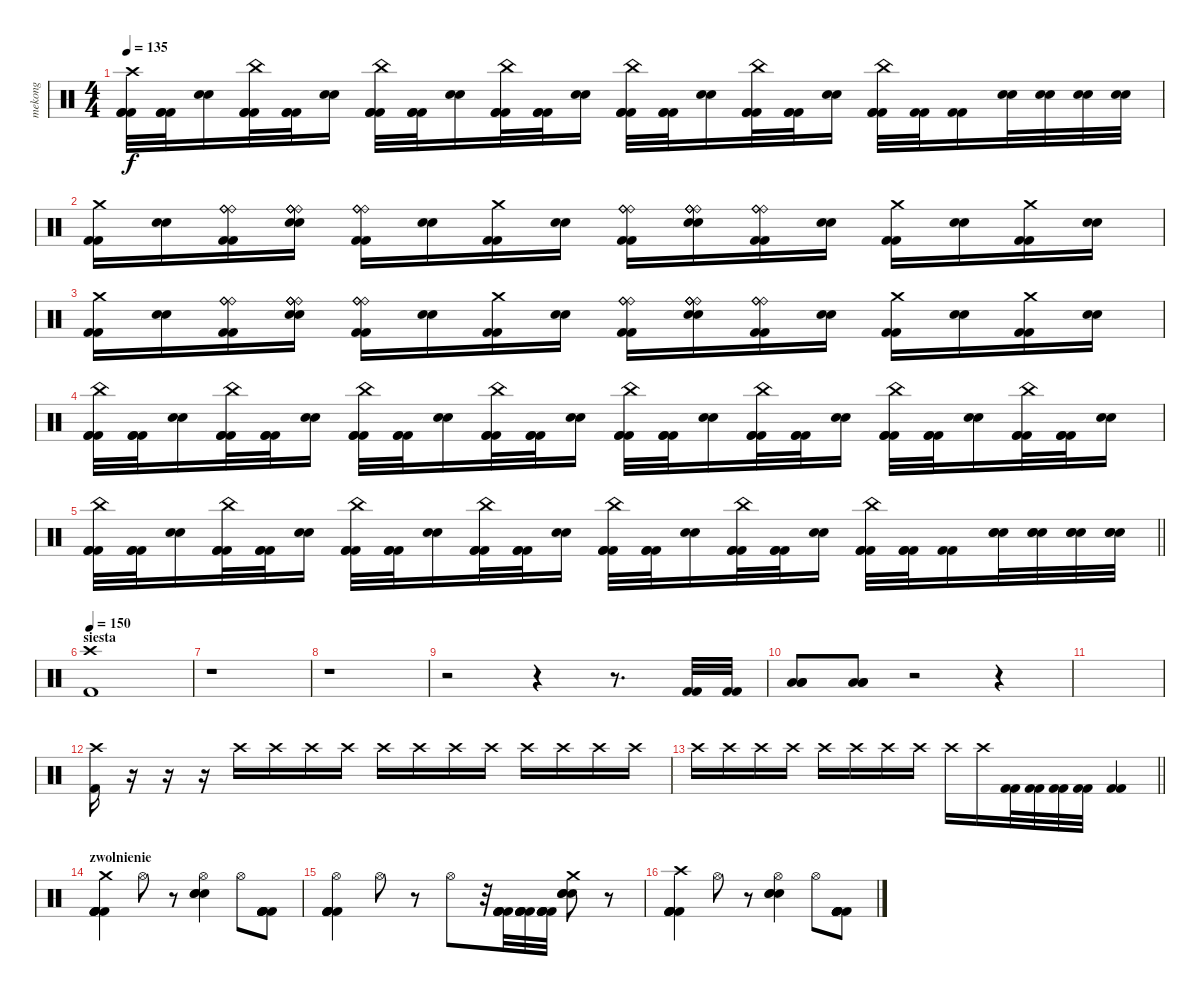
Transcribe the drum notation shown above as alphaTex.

\track ("mekong" "mekong") {instrument percussion}
\staff {score}
\articulation defaults
\ts (4 4)
\tempo 135
\clef neutral
\ks c
("Crash high (hit)" "Kick (hit) 2" "Kick (hit) 2" "Kick (hit) 2").32{dy f} ("Kick (hit) 2" "Kick (hit) 2" "Kick (hit) 2").32 ("Electric Snare (hit)" "Electric Snare (hit)").16 ("China (hit)" "Kick (hit) 2" "Kick (hit) 2" "Kick (hit) 2").32 ("Kick (hit) 2" "Kick (hit) 2" "Kick (hit) 2").32 ("Electric Snare (hit)" "Electric Snare (hit)").16 ("China (hit)" "Kick (hit) 2" "Kick (hit) 2" "Kick (hit) 2").32 ("Kick (hit) 2" "Kick (hit) 2" "Kick (hit) 2").32 ("Electric Snare (hit)" "Electric Snare (hit)").16 ("China (hit)" "Kick (hit) 2" "Kick (hit) 2" "Kick (hit) 2").32 ("Kick (hit) 2" "Kick (hit) 2" "Kick (hit) 2").32 ("Electric Snare (hit)" "Electric Snare (hit)").16 ("China (hit)" "Kick (hit) 2" "Kick (hit) 2" "Kick (hit) 2").32 ("Kick (hit) 2" "Kick (hit) 2" "Kick (hit) 2").32 ("Electric Snare (hit)" "Electric Snare (hit)").16 ("China (hit)" "Kick (hit) 2" "Kick (hit) 2" "Kick (hit) 2").32 ("Kick (hit) 2" "Kick (hit) 2" "Kick (hit) 2").32 ("Electric Snare (hit)" "Electric Snare (hit)").16 ("China (hit)" "Kick (hit) 2" "Kick (hit) 2" "Kick (hit) 2").32 ("Kick (hit) 2" "Kick (hit) 2").32 ("Kick (hit) 2" "Kick (hit) 2").16 ("Electric Snare (hit)" "Electric Snare (hit)").32 ("Electric Snare (hit)" "Electric Snare (hit)").32 ("Electric Snare (hit)" "Electric Snare (hit)").32 ("Electric Snare (hit)" "Electric Snare (hit)").32 |
("Crash medium (hit)" "Kick (hit) 2" "Kick (hit) 2").16 ("Electric Snare (hit)" "Electric Snare (hit)").16 ("Ride (bell)" "Ride (bell)" "Ride (bell)" "Ride (bell)" "Kick (hit) 2" "Kick (hit) 2").16 ("Ride (bell)" "Ride (bell)" "Ride (bell)" "Ride (bell)" "Electric Snare (hit)" "Electric Snare (hit)").16 ("Ride (bell)" "Ride (bell)" "Ride (bell)" "Ride (bell)" "Kick (hit) 2" "Kick (hit) 2").16 ("Electric Snare (hit)" "Electric Snare (hit)").16 ("Crash medium (hit)" "Kick (hit) 2" "Kick (hit) 2").16 ("Electric Snare (hit)" "Electric Snare (hit)").16 ("Ride (bell)" "Ride (bell)" "Ride (bell)" "Ride (bell)" "Kick (hit) 2" "Kick (hit) 2").16 ("Ride (bell)" "Ride (bell)" "Ride (bell)" "Ride (bell)" "Electric Snare (hit)" "Electric Snare (hit)").16 ("Ride (bell)" "Ride (bell)" "Ride (bell)" "Ride (bell)" "Kick (hit) 2" "Kick (hit) 2").16 ("Electric Snare (hit)" "Electric Snare (hit)").16 ("Crash medium (hit)" "Kick (hit) 2" "Kick (hit) 2").16 ("Electric Snare (hit)" "Electric Snare (hit)").16 ("Crash medium (hit)" "Kick (hit) 2" "Kick (hit) 2").16 ("Electric Snare (hit)" "Electric Snare (hit)").16 |
("Crash medium (hit)" "Kick (hit) 2" "Kick (hit) 2").16 ("Electric Snare (hit)" "Electric Snare (hit)").16 ("Ride (bell)" "Ride (bell)" "Ride (bell)" "Ride (bell)" "Kick (hit) 2" "Kick (hit) 2").16 ("Ride (bell)" "Ride (bell)" "Ride (bell)" "Ride (bell)" "Electric Snare (hit)" "Electric Snare (hit)").16 ("Ride (bell)" "Ride (bell)" "Ride (bell)" "Ride (bell)" "Kick (hit) 2" "Kick (hit) 2").16 ("Electric Snare (hit)" "Electric Snare (hit)").16 ("Crash medium (hit)" "Kick (hit) 2" "Kick (hit) 2").16 ("Electric Snare (hit)" "Electric Snare (hit)").16 ("Ride (bell)" "Ride (bell)" "Ride (bell)" "Ride (bell)" "Kick (hit) 2" "Kick (hit) 2").16 ("Ride (bell)" "Ride (bell)" "Ride (bell)" "Ride (bell)" "Electric Snare (hit)" "Electric Snare (hit)").16 ("Ride (bell)" "Ride (bell)" "Ride (bell)" "Ride (bell)" "Kick (hit) 2" "Kick (hit) 2").16 ("Electric Snare (hit)" "Electric Snare (hit)").16 ("Crash medium (hit)" "Kick (hit) 2" "Kick (hit) 2").16 ("Electric Snare (hit)" "Electric Snare (hit)").16 ("Crash medium (hit)" "Kick (hit) 2" "Kick (hit) 2").16 ("Electric Snare (hit)" "Electric Snare (hit)").16 |
("China (hit)" "Kick (hit) 2" "Kick (hit) 2" "Kick (hit) 2").32 ("Kick (hit) 2" "Kick (hit) 2" "Kick (hit) 2").32 ("Electric Snare (hit)" "Electric Snare (hit)").16 ("China (hit)" "Kick (hit) 2" "Kick (hit) 2" "Kick (hit) 2").32 ("Kick (hit) 2" "Kick (hit) 2" "Kick (hit) 2").32 ("Electric Snare (hit)" "Electric Snare (hit)").16 ("China (hit)" "Kick (hit) 2" "Kick (hit) 2" "Kick (hit) 2").32 ("Kick (hit) 2" "Kick (hit) 2" "Kick (hit) 2").32 ("Electric Snare (hit)" "Electric Snare (hit)").16 ("China (hit)" "Kick (hit) 2" "Kick (hit) 2" "Kick (hit) 2").32 ("Kick (hit) 2" "Kick (hit) 2" "Kick (hit) 2").32 ("Electric Snare (hit)" "Electric Snare (hit)").16 ("China (hit)" "Kick (hit) 2" "Kick (hit) 2" "Kick (hit) 2").32 ("Kick (hit) 2" "Kick (hit) 2" "Kick (hit) 2").32 ("Electric Snare (hit)" "Electric Snare (hit)").16 ("China (hit)" "Kick (hit) 2" "Kick (hit) 2" "Kick (hit) 2").32 ("Kick (hit) 2" "Kick (hit) 2" "Kick (hit) 2").32 ("Electric Snare (hit)" "Electric Snare (hit)").16 ("China (hit)" "Kick (hit) 2" "Kick (hit) 2" "Kick (hit) 2").32 ("Kick (hit) 2" "Kick (hit) 2" "Kick (hit) 2").32 ("Electric Snare (hit)" "Electric Snare (hit)").16 ("China (hit)" "Kick (hit) 2" "Kick (hit) 2" "Kick (hit) 2").32 ("Kick (hit) 2" "Kick (hit) 2" "Kick (hit) 2").32 ("Electric Snare (hit)" "Electric Snare (hit)").16 |
\barLineRight lightlight
("China (hit)" "Kick (hit) 2" "Kick (hit) 2" "Kick (hit) 2").32 ("Kick (hit) 2" "Kick (hit) 2" "Kick (hit) 2").32 ("Electric Snare (hit)" "Electric Snare (hit)").16 ("China (hit)" "Kick (hit) 2" "Kick (hit) 2" "Kick (hit) 2").32 ("Kick (hit) 2" "Kick (hit) 2" "Kick (hit) 2").32 ("Electric Snare (hit)" "Electric Snare (hit)").16 ("China (hit)" "Kick (hit) 2" "Kick (hit) 2" "Kick (hit) 2").32 ("Kick (hit) 2" "Kick (hit) 2" "Kick (hit) 2").32 ("Electric Snare (hit)" "Electric Snare (hit)").16 ("China (hit)" "Kick (hit) 2" "Kick (hit) 2" "Kick (hit) 2").32 ("Kick (hit) 2" "Kick (hit) 2" "Kick (hit) 2").32 ("Electric Snare (hit)" "Electric Snare (hit)").16 ("China (hit)" "Kick (hit) 2" "Kick (hit) 2" "Kick (hit) 2").32 ("Kick (hit) 2" "Kick (hit) 2" "Kick (hit) 2").32 ("Electric Snare (hit)" "Electric Snare (hit)").16 ("China (hit)" "Kick (hit) 2" "Kick (hit) 2" "Kick (hit) 2").32 ("Kick (hit) 2" "Kick (hit) 2" "Kick (hit) 2").32 ("Electric Snare (hit)" "Electric Snare (hit)").16 ("China (hit)" "Kick (hit) 2" "Kick (hit) 2" "Kick (hit) 2").32 ("Kick (hit) 2" "Kick (hit) 2" "Kick (hit) 2").32 ("Kick (hit) 2" "Kick (hit) 2").16 ("Electric Snare (hit)" "Electric Snare (hit)" "Electric Snare (hit)").32 ("Electric Snare (hit)" "Electric Snare (hit)" "Electric Snare (hit)").32 ("Electric Snare (hit)" "Electric Snare (hit)" "Electric Snare (hit)").32 ("Electric Snare (hit)" "Electric Snare (hit)" "Electric Snare (hit)").32 |
\section ("" "siesta")
\tempo 150
("Crash high (hit)" "Kick (hit) 2").1 |
r.1 |
r.1 |
r.2 r.4 r.8{d} ("Kick (hit) 2" "Kick (hit) 2").32 ("Kick (hit) 2" "Kick (hit) 2").32 |
("Low Floor Tom (hit)" "Low Floor Tom (hit)" "Low Floor Tom (hit)").8 ("Low Floor Tom (hit)" "Low Floor Tom (hit)" "Low Floor Tom (hit)").8 r.2 r.4 |
|
("Crash high (hit)" "Kick (hit) 2").16 r.16 r.16 r.16 "Crash high (hit)".16{volume 5} "Crash high (hit)".16{volume 6} "Crash high (hit)".16{volume 7} "Crash high (hit)".16{volume 8} "Crash high (hit)".16{volume 9} "Crash high (hit)".16{volume 10} "Crash high (hit)".16{volume 11} "Crash high (hit)".16{volume 12} "Crash high (hit)".16{volume 13} "Crash high (hit)".16{volume 14} "Crash high (hit)".16{volume 15} "Crash high (hit)".16 |
\barLineRight lightlight "Crash high (hit)".16 "Crash high (hit)".16 "Crash high (hit)".16 "Crash high (hit)".16 "Crash high (hit)".16 "Crash high (hit)".16 "Crash high (hit)".16 "Crash high (hit)".16 "Crash high (hit)".16 "Crash high (hit)".16
("Kick (hit) 2" "Kick (hit) 2").32 ("Kick (hit) 2" "Kick (hit) 2").32 ("Kick (hit) 2" "Kick (hit) 2").32 ("Kick (hit) 2" "Kick (hit) 2").32 ("Kick (hit) 2" "Kick (hit) 2").4 |
\section ("" "zwolnienie")
("Crash medium (hit)" "Kick (hit) 2" "Kick (hit) 2" "Kick (hit) 2" "Kick (hit) 2" "Kick (hit) 2").4 "Hi-Hat (open)".8 r.8 ("Hi-Hat (open)" "Electric Snare (hit)" "Electric Snare (hit)" "Electric Snare (hit)").4 "Hi-Hat (open)".8 ("Kick (hit) 2" "Kick (hit) 2" "Kick (hit) 2" "Kick (hit) 2" "Kick (hit) 2").8 |
("Hi-Hat (open)" "Kick (hit) 2" "Kick (hit) 2" "Kick (hit) 2" "Kick (hit) 2" "Kick (hit) 2").4 "Hi-Hat (open)".8 r.8 "Hi-Hat (open)".8 r.32 ("Kick (hit) 2" "Kick (hit) 2" "Kick (hit) 2" "Kick (hit) 2" "Kick (hit) 2").32 ("Kick (hit) 2" "Kick (hit) 2" "Kick (hit) 2" "Kick (hit) 2" "Kick (hit) 2").32 ("Kick (hit) 2" "Kick (hit) 2" "Kick (hit) 2" "Kick (hit) 2" "Kick (hit) 2").32 ("Crash medium (hit)" "Electric Snare (hit)" "Electric Snare (hit)" "Electric Snare (hit)").8 r.8 |
("Crash high (hit)" "Kick (hit) 2" "Kick (hit) 2" "Kick (hit) 2" "Kick (hit) 2" "Kick (hit) 2").4 "Hi-Hat (open)".8 r.8 ("Hi-Hat (open)" "Electric Snare (hit)" "Electric Snare (hit)" "Electric Snare (hit)").4 "Hi-Hat (open)".8 ("Kick (hit) 2" "Kick (hit) 2" "Kick (hit) 2" "Kick (hit) 2" "Kick (hit) 2" "Kick (hit) 2").8
